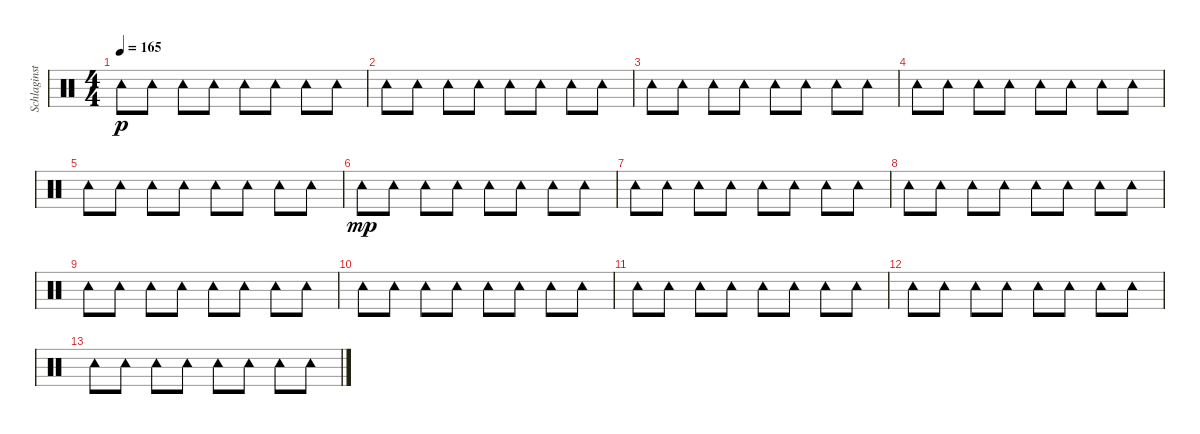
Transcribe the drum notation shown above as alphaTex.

\track ("Schlaginstrumente - Auswahl" "Schlaginst") {instrument percussion}
\staff {score}
\articulation defaults
\ts (4 4)
\tempo 165
\clef neutral
\ks c "Tambourine (hit)".8{dy p} "Tambourine (hit)".8 "Tambourine (hit)".8 "Tambourine (hit)".8 "Tambourine (hit)".8 "Tambourine (hit)".8 "Tambourine (hit)".8 "Tambourine (hit)".8
|
"Tambourine (hit)".8 "Tambourine (hit)".8 "Tambourine (hit)".8 "Tambourine (hit)".8 "Tambourine (hit)".8 "Tambourine (hit)".8 "Tambourine (hit)".8 "Tambourine (hit)".8 |
"Tambourine (hit)".8 "Tambourine (hit)".8 "Tambourine (hit)".8 "Tambourine (hit)".8 "Tambourine (hit)".8 "Tambourine (hit)".8 "Tambourine (hit)".8 "Tambourine (hit)".8 |
"Tambourine (hit)".8 "Tambourine (hit)".8 "Tambourine (hit)".8 "Tambourine (hit)".8 "Tambourine (hit)".8 "Tambourine (hit)".8 "Tambourine (hit)".8 "Tambourine (hit)".8 |
"Tambourine (hit)".8 "Tambourine (hit)".8 "Tambourine (hit)".8 "Tambourine (hit)".8 "Tambourine (hit)".8 "Tambourine (hit)".8 "Tambourine (hit)".8 "Tambourine (hit)".8 |
"Tambourine (hit)".8{dy mp} "Tambourine (hit)".8 "Tambourine (hit)".8 "Tambourine (hit)".8 "Tambourine (hit)".8 "Tambourine (hit)".8 "Tambourine (hit)".8 "Tambourine (hit)".8 |
"Tambourine (hit)".8 "Tambourine (hit)".8 "Tambourine (hit)".8 "Tambourine (hit)".8 "Tambourine (hit)".8 "Tambourine (hit)".8 "Tambourine (hit)".8 "Tambourine (hit)".8 |
"Tambourine (hit)".8 "Tambourine (hit)".8 "Tambourine (hit)".8 "Tambourine (hit)".8 "Tambourine (hit)".8 "Tambourine (hit)".8 "Tambourine (hit)".8 "Tambourine (hit)".8 |
"Tambourine (hit)".8 "Tambourine (hit)".8 "Tambourine (hit)".8 "Tambourine (hit)".8 "Tambourine (hit)".8 "Tambourine (hit)".8 "Tambourine (hit)".8 "Tambourine (hit)".8 |
"Tambourine (hit)".8 "Tambourine (hit)".8 "Tambourine (hit)".8 "Tambourine (hit)".8 "Tambourine (hit)".8 "Tambourine (hit)".8 "Tambourine (hit)".8 "Tambourine (hit)".8 |
"Tambourine (hit)".8 "Tambourine (hit)".8 "Tambourine (hit)".8 "Tambourine (hit)".8 "Tambourine (hit)".8 "Tambourine (hit)".8 "Tambourine (hit)".8 "Tambourine (hit)".8 |
"Tambourine (hit)".8 "Tambourine (hit)".8 "Tambourine (hit)".8 "Tambourine (hit)".8 "Tambourine (hit)".8 "Tambourine (hit)".8 "Tambourine (hit)".8 "Tambourine (hit)".8 |
"Tambourine (hit)".8 "Tambourine (hit)".8 "Tambourine (hit)".8 "Tambourine (hit)".8 "Tambourine (hit)".8 "Tambourine (hit)".8 "Tambourine (hit)".8 "Tambourine (hit)".8
